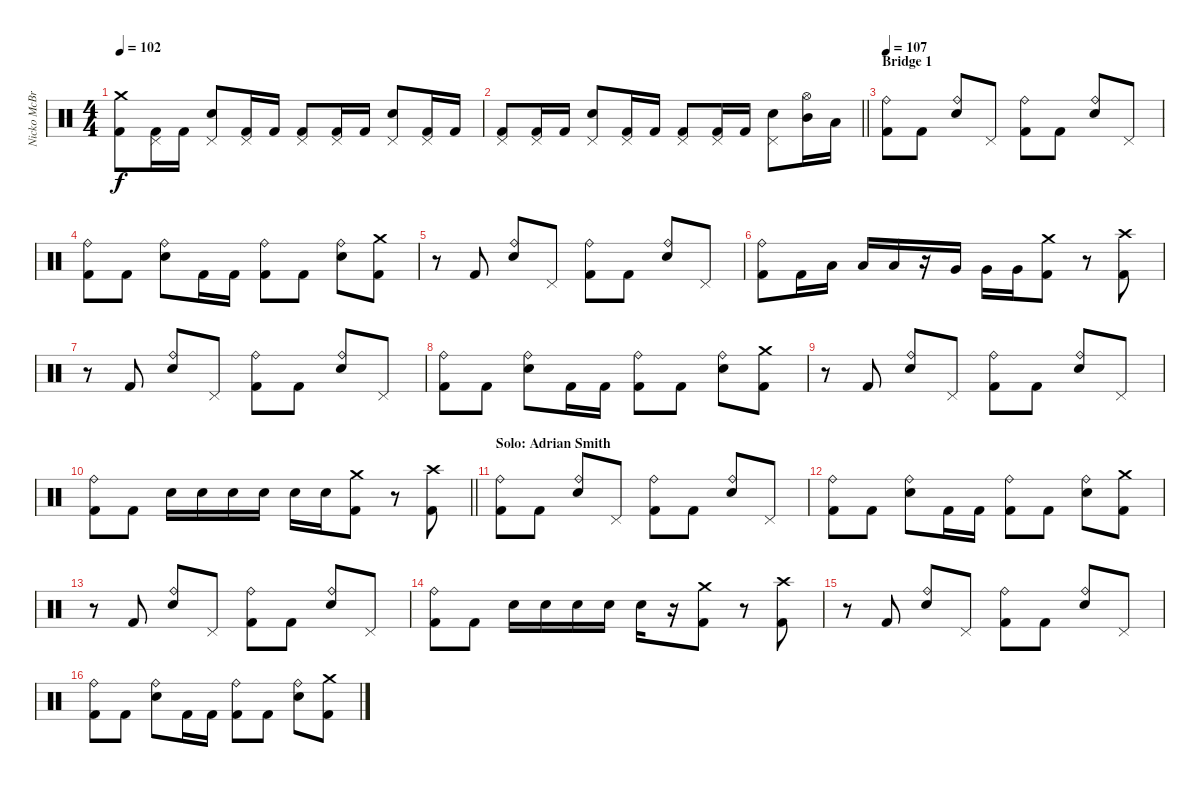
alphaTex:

\track ("Nicko McBrain" "Nicko McBr") {instrument percussion}
\staff {score}
\articulation defaults
\ts (4 4)
\tempo 102
\clef neutral
\ks c
("Crash medium (hit)" "Kick (hit) 2").8{dy f} ("Pedal Hi-Hat (hit)" "Kick (hit) 2").16 "Kick (hit) 2".16 ("Pedal Hi-Hat (hit)" "Electric Snare (hit)").8 ("Pedal Hi-Hat (hit)" "Kick (hit) 2").16 "Kick (hit) 2".16 ("Pedal Hi-Hat (hit)" "Kick (hit) 2").8 ("Pedal Hi-Hat (hit)" "Kick (hit) 2").16 "Kick (hit) 2".16 ("Pedal Hi-Hat (hit)" "Electric Snare (hit)").8 ("Pedal Hi-Hat (hit)" "Kick (hit) 2").16 "Kick (hit) 2".16 |
\barLineRight lightlight
("Pedal Hi-Hat (hit)" "Kick (hit) 2").8 ("Pedal Hi-Hat (hit)" "Kick (hit) 2").16 "Kick (hit) 2".16 ("Pedal Hi-Hat (hit)" "Electric Snare (hit)").8 ("Pedal Hi-Hat (hit)" "Kick (hit) 2").16 "Kick (hit) 2".16 ("Pedal Hi-Hat (hit)" "Kick (hit) 2").8 ("Pedal Hi-Hat (hit)" "Kick (hit) 2").16 "Kick (hit) 2".16 ("Pedal Hi-Hat (hit)" "Electric Snare (hit)").8 ("Hi-Hat (open)" "Mid Tom (hit)").16 "Low Tom (hit)".16 |
\section ("" "Bridge 1")
\tempo 107
("Ride (bell)" "Kick (hit) 2").8 "Kick (hit) 2".8 ("Ride (bell)" "Electric Snare (hit)").8 "Pedal Hi-Hat (hit)".8 ("Ride (bell)" "Kick (hit) 2").8 "Kick (hit) 2".8 ("Ride (bell)" "Electric Snare (hit)").8 "Pedal Hi-Hat (hit)".8 |
("Ride (bell)" "Kick (hit) 2").8 "Kick (hit) 2".8 ("Ride (bell)" "Electric Snare (hit)").8 "Kick (hit) 2".16 "Kick (hit) 2".16 ("Ride (bell)" "Kick (hit) 2").8 "Kick (hit) 2".8 ("Ride (bell)" "Electric Snare (hit)").8 ("Crash medium (hit)" "Kick (hit) 2").8 |
r.8 "Kick (hit) 2".8 ("Ride (bell)" "Electric Snare (hit)").8 "Pedal Hi-Hat (hit)".8 ("Ride (bell)" "Kick (hit) 2").8 "Kick (hit) 2".8 ("Ride (bell)" "Electric Snare (hit)").8 "Pedal Hi-Hat (hit)".8 |
("Ride (bell)" "Kick (hit) 2").8 "Kick (hit) 2".16 "Low Tom (hit)".16 "Low Tom (hit)".16 "Low Tom (hit)".16 r.16 "Very Low Tom (hit)".16 "Very Low Tom (hit)".16 "Very Low Tom (hit)".16 ("Crash medium (hit)" "Kick (hit) 2").8 r.8 ("Crash high (hit)" "Kick (hit) 2").8 |
r.8 "Kick (hit) 2".8 ("Ride (bell)" "Electric Snare (hit)").8 "Pedal Hi-Hat (hit)".8 ("Ride (bell)" "Kick (hit) 2").8 "Kick (hit) 2".8 ("Ride (bell)" "Electric Snare (hit)").8 "Pedal Hi-Hat (hit)".8 |
("Ride (bell)" "Kick (hit) 2").8 "Kick (hit) 2".8 ("Ride (bell)" "Electric Snare (hit)").8 "Kick (hit) 2".16 "Kick (hit) 2".16 ("Ride (bell)" "Kick (hit) 2").8 "Kick (hit) 2".8 ("Ride (bell)" "Electric Snare (hit)").8 ("Crash medium (hit)" "Kick (hit) 2").8 |
r.8 "Kick (hit) 2".8 ("Ride (bell)" "Electric Snare (hit)").8 "Pedal Hi-Hat (hit)".8 ("Ride (bell)" "Kick (hit) 2").8 "Kick (hit) 2".8 ("Ride (bell)" "Electric Snare (hit)").8 "Pedal Hi-Hat (hit)".8 |
\barLineRight lightlight
("Ride (bell)" "Kick (hit) 2").8 "Kick (hit) 2".8 "Electric Snare (hit)".16 "Electric Snare (hit)".16 "Electric Snare (hit)".16 "Electric Snare (hit)".16 "Electric Snare (hit)".16 "Electric Snare (hit)".16 ("Crash medium (hit)" "Kick (hit) 2").8 r.8 ("Crash high (hit)" "Kick (hit) 2").8 |
\section ("" "Solo: Adrian Smith")
("Ride (bell)" "Kick (hit) 2").8 "Kick (hit) 2".8 ("Ride (bell)" "Electric Snare (hit)").8 "Pedal Hi-Hat (hit)".8 ("Ride (bell)" "Kick (hit) 2").8 "Kick (hit) 2".8 ("Ride (bell)" "Electric Snare (hit)").8 "Pedal Hi-Hat (hit)".8 |
("Ride (bell)" "Kick (hit) 2").8 "Kick (hit) 2".8 ("Ride (bell)" "Electric Snare (hit)").8 "Kick (hit) 2".16 "Kick (hit) 2".16 ("Ride (bell)" "Kick (hit) 2").8 "Kick (hit) 2".8 ("Ride (bell)" "Electric Snare (hit)").8 ("Crash medium (hit)" "Kick (hit) 2").8 |
r.8 "Kick (hit) 2".8 ("Ride (bell)" "Electric Snare (hit)").8 "Pedal Hi-Hat (hit)".8 ("Ride (bell)" "Kick (hit) 2").8 "Kick (hit) 2".8 ("Ride (bell)" "Electric Snare (hit)").8 "Pedal Hi-Hat (hit)".8 |
("Ride (bell)" "Kick (hit) 2").8 "Kick (hit) 2".8 "Electric Snare (hit)".16 "Electric Snare (hit)".16 "Electric Snare (hit)".16 "Electric Snare (hit)".16 "Electric Snare (hit)".16 r.16 ("Crash medium (hit)" "Kick (hit) 2").8 r.8 ("Crash high (hit)" "Kick (hit) 2").8 |
r.8 "Kick (hit) 2".8 ("Ride (bell)" "Electric Snare (hit)").8 "Pedal Hi-Hat (hit)".8 ("Ride (bell)" "Kick (hit) 2").8 "Kick (hit) 2".8 ("Ride (bell)" "Electric Snare (hit)").8 "Pedal Hi-Hat (hit)".8 |
("Ride (bell)" "Kick (hit) 2").8 "Kick (hit) 2".8 ("Ride (bell)" "Electric Snare (hit)").8 "Kick (hit) 2".16 "Kick (hit) 2".16 ("Ride (bell)" "Kick (hit) 2").8 "Kick (hit) 2".8 ("Ride (bell)" "Electric Snare (hit)").8 ("Crash medium (hit)" "Kick (hit) 2").8
